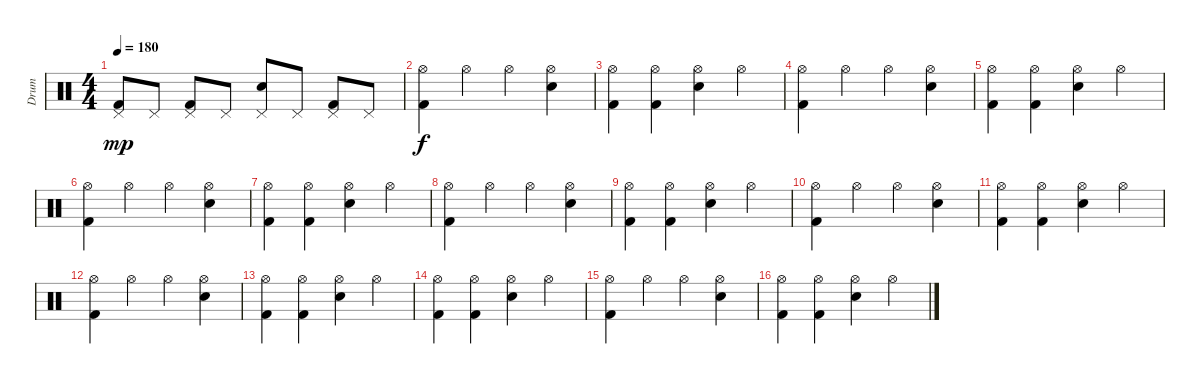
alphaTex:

\track ("Drum" "Drum") {instrument percussion}
\staff {score}
\articulation defaults
\ts (4 4)
\tempo 180
\clef neutral
\ks c
("Pedal Hi-Hat (hit)" "Kick (hit) 2").8{dy mp} "Pedal Hi-Hat (hit)".8 ("Pedal Hi-Hat (hit)" "Kick (hit) 2").8 "Pedal Hi-Hat (hit)".8 ("Pedal Hi-Hat (hit)" "Snare (hit) 2").8 "Pedal Hi-Hat (hit)".8 ("Pedal Hi-Hat (hit)" "Kick (hit) 2").8 "Pedal Hi-Hat (hit)".8 |
("Hi-Hat (open)" "Kick (hit) 2").4{dy f} "Hi-Hat (open)".4 "Hi-Hat (open)".4 ("Hi-Hat (open)" "Snare (hit) 2").4 |
("Hi-Hat (open)" "Kick (hit) 2").4 ("Hi-Hat (open)" "Kick (hit) 2").4 ("Hi-Hat (open)" "Snare (hit) 2").4 "Hi-Hat (open)".4 |
("Hi-Hat (open)" "Kick (hit) 2").4 "Hi-Hat (open)".4 "Hi-Hat (open)".4 ("Hi-Hat (open)" "Snare (hit) 2").4 |
("Hi-Hat (open)" "Kick (hit) 2").4 ("Hi-Hat (open)" "Kick (hit) 2").4 ("Hi-Hat (open)" "Snare (hit) 2").4 "Hi-Hat (open)".4 |
("Hi-Hat (open)" "Kick (hit) 2").4 "Hi-Hat (open)".4 "Hi-Hat (open)".4 ("Hi-Hat (open)" "Snare (hit) 2").4 |
("Hi-Hat (open)" "Kick (hit) 2").4 ("Hi-Hat (open)" "Kick (hit) 2").4 ("Hi-Hat (open)" "Snare (hit) 2").4 "Hi-Hat (open)".4 |
("Hi-Hat (open)" "Kick (hit) 2").4 "Hi-Hat (open)".4 "Hi-Hat (open)".4 ("Hi-Hat (open)" "Snare (hit) 2").4 |
("Hi-Hat (open)" "Kick (hit) 2").4 ("Hi-Hat (open)" "Kick (hit) 2").4 ("Hi-Hat (open)" "Snare (hit) 2").4 "Hi-Hat (open)".4 |
("Hi-Hat (open)" "Kick (hit) 2").4 "Hi-Hat (open)".4 "Hi-Hat (open)".4 ("Hi-Hat (open)" "Snare (hit) 2").4 |
("Hi-Hat (open)" "Kick (hit) 2").4 ("Hi-Hat (open)" "Kick (hit) 2").4 ("Hi-Hat (open)" "Snare (hit) 2").4 "Hi-Hat (open)".4 |
("Hi-Hat (open)" "Kick (hit) 2").4 "Hi-Hat (open)".4 "Hi-Hat (open)".4 ("Hi-Hat (open)" "Snare (hit) 2").4 |
("Hi-Hat (open)" "Kick (hit) 2").4 ("Hi-Hat (open)" "Kick (hit) 2").4 ("Hi-Hat (open)" "Snare (hit) 2").4 "Hi-Hat (open)".4 |
("Hi-Hat (open)" "Kick (hit) 2").4 ("Hi-Hat (open)" "Kick (hit) 2").4 ("Hi-Hat (open)" "Snare (hit) 2").4 "Hi-Hat (open)".4 |
("Hi-Hat (open)" "Kick (hit) 2").4 "Hi-Hat (open)".4 "Hi-Hat (open)".4 ("Hi-Hat (open)" "Snare (hit) 2").4 |
("Hi-Hat (open)" "Kick (hit) 2").4 ("Hi-Hat (open)" "Kick (hit) 2").4 ("Hi-Hat (open)" "Snare (hit) 2").4 "Hi-Hat (open)".4
